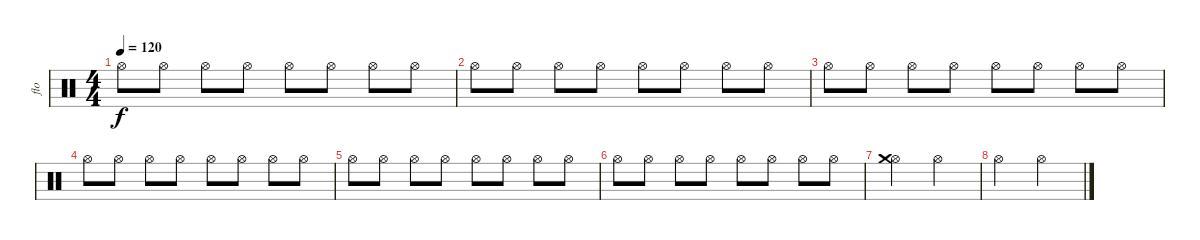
\track ("flo" "flo") {instrument percussion}
\staff {score}
\articulation defaults
\ts (4 4)
\tempo 120
\clef neutral
\ks c "Hi-Hat (open)".8{dy f} "Hi-Hat (open)".8 "Hi-Hat (open)".8 "Hi-Hat (open)".8 "Hi-Hat (open)".8 "Hi-Hat (open)".8 "Hi-Hat (open)".8 "Hi-Hat (open)".8
|
"Hi-Hat (open)".8 "Hi-Hat (open)".8 "Hi-Hat (open)".8 "Hi-Hat (open)".8 "Hi-Hat (open)".8 "Hi-Hat (open)".8 "Hi-Hat (open)".8 "Hi-Hat (open)".8 |
"Hi-Hat (open)".8 "Hi-Hat (open)".8 "Hi-Hat (open)".8 "Hi-Hat (open)".8 "Hi-Hat (open)".8 "Hi-Hat (open)".8 "Hi-Hat (open)".8 "Hi-Hat (open)".8 |
"Hi-Hat (open)".8 "Hi-Hat (open)".8 "Hi-Hat (open)".8 "Hi-Hat (open)".8 "Hi-Hat (open)".8 "Hi-Hat (open)".8 "Hi-Hat (open)".8 "Hi-Hat (open)".8 |
"Hi-Hat (open)".8 "Hi-Hat (open)".8 "Hi-Hat (open)".8 "Hi-Hat (open)".8 "Hi-Hat (open)".8 "Hi-Hat (open)".8 "Hi-Hat (open)".8 "Hi-Hat (open)".8 |
"Hi-Hat (open)".8 "Hi-Hat (open)".8 "Hi-Hat (open)".8 "Hi-Hat (open)".8 "Hi-Hat (open)".8 "Hi-Hat (open)".8 "Hi-Hat (open)".8 "Hi-Hat (open)".8 |
("Hi-Hat (open)" "Crash medium (hit)").2 "Hi-Hat (open)".2 |
"Hi-Hat (open)".2 "Hi-Hat (open)".2
